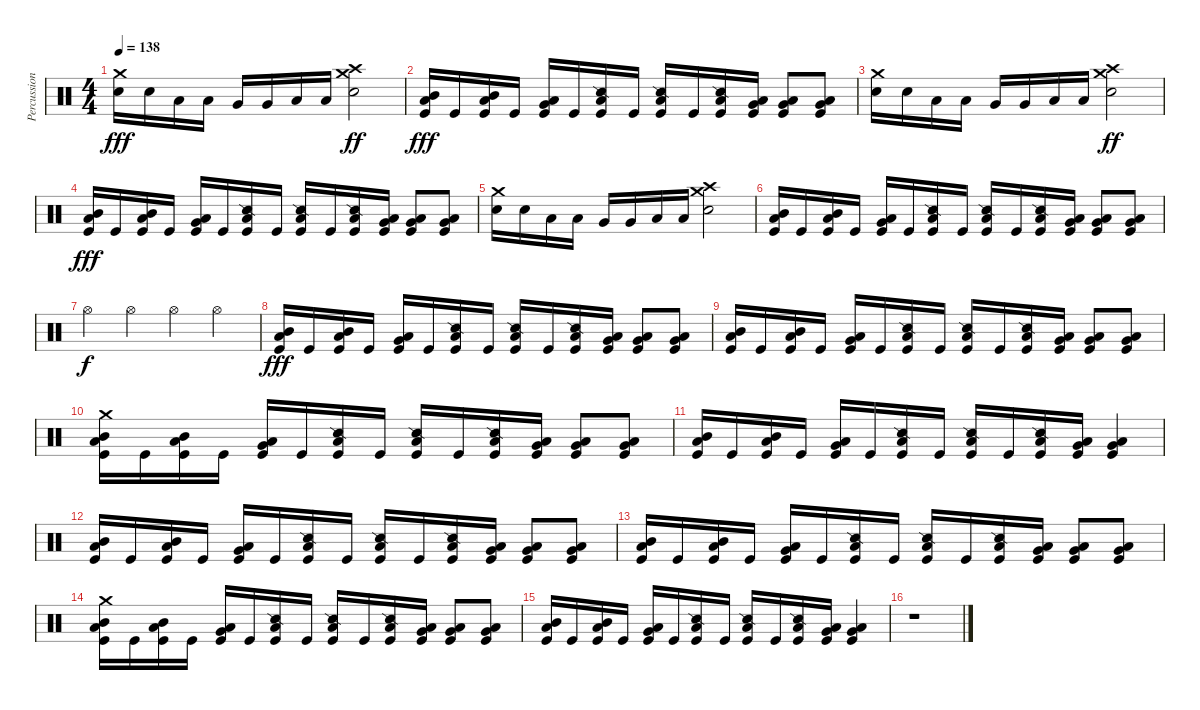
\track ("Percussion" "Percussion") {instrument percussion}
\staff {score}
\articulation defaults
\ts (4 4)
\tempo 138
\clef neutral
\ks c
("Crash medium (hit)" "Electric Snare (hit)").16{dy fff} "Electric Snare (hit)".16 "Low Tom (hit)".16 "Low Tom (hit)".16 "Very Low Tom (hit)".16 "Very Low Tom (hit)".16 "Low Floor Tom (hit)".16 "Low Floor Tom (hit)".16 ("Crash medium (hit)" "Crash high (hit)" "Electric Snare (hit)").2{dy ff} |
("Mid Tom (hit)" "Low Tom (hit)" "Kick (hit)").16{dy fff} "Kick (hit)".16 ("Mid Tom (hit)" "Low Tom (hit)" "Kick (hit)").16 "Kick (hit)".16 ("Very Low Tom (hit)" "Low Tom (hit)" "Kick (hit)").16 "Kick (hit)".16 ("Snare (side stick) 2" "Low Tom (hit)" "Kick (hit)").16 "Kick (hit)".16 ("Snare (side stick) 2" "Low Tom (hit)" "Kick (hit)").16 "Kick (hit)".16 ("Snare (side stick) 2" "Low Floor Tom (hit)" "Kick (hit)").16 ("Very Low Tom (hit)" "Low Tom (hit)" "Kick (hit)").16 ("Very Low Tom (hit)" "Low Tom (hit)" "Kick (hit)").8 ("Low Floor Tom (hit)" "Very Low Tom (hit)" "Kick (hit)").8 |
("Crash medium (hit)" "Electric Snare (hit)").16 "Electric Snare (hit)".16 "Low Tom (hit)".16 "Low Tom (hit)".16 "Very Low Tom (hit)".16 "Very Low Tom (hit)".16 "Low Floor Tom (hit)".16 "Low Floor Tom (hit)".16 ("Crash medium (hit)" "Crash high (hit)" "Electric Snare (hit)").2{dy ff} |
("Mid Tom (hit)" "Low Tom (hit)" "Kick (hit)").16{dy fff} "Kick (hit)".16 ("Mid Tom (hit)" "Low Tom (hit)" "Kick (hit)").16 "Kick (hit)".16 ("Very Low Tom (hit)" "Low Tom (hit)" "Kick (hit)").16 "Kick (hit)".16 ("Snare (side stick) 2" "Low Tom (hit)" "Kick (hit)").16 "Kick (hit)".16 ("Snare (side stick) 2" "Low Tom (hit)" "Kick (hit)").16 "Kick (hit)".16 ("Snare (side stick) 2" "Low Floor Tom (hit)" "Kick (hit)").16 ("Very Low Tom (hit)" "Low Tom (hit)" "Kick (hit)").16 ("Very Low Tom (hit)" "Low Tom (hit)" "Kick (hit)").8 ("Low Floor Tom (hit)" "Very Low Tom (hit)" "Kick (hit)").8 |
("Crash medium (hit)" "Electric Snare (hit)").16 "Electric Snare (hit)".16 "Low Tom (hit)".16 "Low Tom (hit)".16 "Very Low Tom (hit)".16 "Very Low Tom (hit)".16 "Low Floor Tom (hit)".16 "Low Floor Tom (hit)".16 ("Crash medium (hit)" "Crash high (hit)" "Electric Snare (hit)").2 |
("Mid Tom (hit)" "Low Tom (hit)" "Kick (hit)").16 "Kick (hit)".16 ("Mid Tom (hit)" "Low Tom (hit)" "Kick (hit)").16 "Kick (hit)".16 ("Very Low Tom (hit)" "Low Tom (hit)" "Kick (hit)").16 "Kick (hit)".16 ("Snare (side stick) 2" "Low Tom (hit)" "Kick (hit)").16 "Kick (hit)".16 ("Snare (side stick) 2" "Low Tom (hit)" "Kick (hit)").16 "Kick (hit)".16 ("Snare (side stick) 2" "Low Floor Tom (hit)" "Kick (hit)").16 ("Very Low Tom (hit)" "Low Tom (hit)" "Kick (hit)").16 ("Very Low Tom (hit)" "Low Tom (hit)" "Kick (hit)").8 ("Low Floor Tom (hit)" "Very Low Tom (hit)" "Kick (hit)").8 |
"Hi-Hat (open)".4{dy f} "Hi-Hat (open)".4 "Hi-Hat (open)".4 "Hi-Hat (open)".4 |
("Mid Tom (hit)" "Low Tom (hit)" "Kick (hit)").16{dy fff} "Kick (hit)".16 ("Mid Tom (hit)" "Low Tom (hit)" "Kick (hit)").16 "Kick (hit)".16 ("Very Low Tom (hit)" "Low Tom (hit)" "Kick (hit)").16 "Kick (hit)".16 ("Snare (side stick) 2" "Low Tom (hit)" "Kick (hit)").16 "Kick (hit)".16 ("Snare (side stick) 2" "Low Tom (hit)" "Kick (hit)").16 "Kick (hit)".16 ("Snare (side stick) 2" "Low Floor Tom (hit)" "Kick (hit)").16 ("Very Low Tom (hit)" "Low Tom (hit)" "Kick (hit)").16 ("Very Low Tom (hit)" "Low Tom (hit)" "Kick (hit)").8 ("Low Floor Tom (hit)" "Very Low Tom (hit)" "Kick (hit)").8 |
("Mid Tom (hit)" "Low Tom (hit)" "Kick (hit)").16 "Kick (hit)".16 ("Mid Tom (hit)" "Low Tom (hit)" "Kick (hit)").16 "Kick (hit)".16 ("Very Low Tom (hit)" "Low Tom (hit)" "Kick (hit)").16 "Kick (hit)".16 ("Snare (side stick) 2" "Low Tom (hit)" "Kick (hit)").16 "Kick (hit)".16 ("Snare (side stick) 2" "Low Tom (hit)" "Kick (hit)").16 "Kick (hit)".16 ("Snare (side stick) 2" "Low Floor Tom (hit)" "Kick (hit)").16 ("Very Low Tom (hit)" "Low Tom (hit)" "Kick (hit)").16 ("Very Low Tom (hit)" "Low Tom (hit)" "Kick (hit)").8 ("Low Floor Tom (hit)" "Very Low Tom (hit)" "Kick (hit)").8 |
("Crash medium (hit)" "Mid Tom (hit)" "Low Tom (hit)" "Kick (hit)").16 "Kick (hit)".16 ("Mid Tom (hit)" "Low Tom (hit)" "Kick (hit)").16 "Kick (hit)".16 ("Very Low Tom (hit)" "Low Tom (hit)" "Kick (hit)").16 "Kick (hit)".16 ("Snare (side stick) 2" "Low Tom (hit)" "Kick (hit)").16 "Kick (hit)".16 ("Snare (side stick) 2" "Low Tom (hit)" "Kick (hit)").16 "Kick (hit)".16 ("Snare (side stick) 2" "Low Floor Tom (hit)" "Kick (hit)").16 ("Very Low Tom (hit)" "Low Tom (hit)" "Kick (hit)").16 ("Very Low Tom (hit)" "Low Tom (hit)" "Kick (hit)").8 ("Low Floor Tom (hit)" "Very Low Tom (hit)" "Kick (hit)").8 |
("Mid Tom (hit)" "Low Tom (hit)" "Kick (hit)").16 "Kick (hit)".16 ("Mid Tom (hit)" "Low Tom (hit)" "Kick (hit)").16 "Kick (hit)".16 ("Very Low Tom (hit)" "Low Tom (hit)" "Kick (hit)").16 "Kick (hit)".16 ("Snare (side stick) 2" "Low Tom (hit)" "Kick (hit)").16 "Kick (hit)".16 ("Snare (side stick) 2" "Low Tom (hit)" "Kick (hit)").16 "Kick (hit)".16 ("Snare (side stick) 2" "Low Floor Tom (hit)" "Kick (hit)").16 ("Very Low Tom (hit)" "Low Tom (hit)" "Kick (hit)").16 ("Very Low Tom (hit)" "Low Tom (hit)" "Kick (hit)").4 |
("Mid Tom (hit)" "Low Tom (hit)" "Kick (hit)").16 "Kick (hit)".16 ("Mid Tom (hit)" "Low Tom (hit)" "Kick (hit)").16 "Kick (hit)".16 ("Very Low Tom (hit)" "Low Tom (hit)" "Kick (hit)").16 "Kick (hit)".16 ("Snare (side stick) 2" "Low Tom (hit)" "Kick (hit)").16 "Kick (hit)".16 ("Snare (side stick) 2" "Low Tom (hit)" "Kick (hit)").16 "Kick (hit)".16 ("Snare (side stick) 2" "Low Floor Tom (hit)" "Kick (hit)").16 ("Very Low Tom (hit)" "Low Tom (hit)" "Kick (hit)").16 ("Very Low Tom (hit)" "Low Tom (hit)" "Kick (hit)").8 ("Low Floor Tom (hit)" "Very Low Tom (hit)" "Kick (hit)").8 |
("Mid Tom (hit)" "Low Tom (hit)" "Kick (hit)").16 "Kick (hit)".16 ("Mid Tom (hit)" "Low Tom (hit)" "Kick (hit)").16 "Kick (hit)".16 ("Very Low Tom (hit)" "Low Tom (hit)" "Kick (hit)").16 "Kick (hit)".16 ("Snare (side stick) 2" "Low Tom (hit)" "Kick (hit)").16 "Kick (hit)".16 ("Snare (side stick) 2" "Low Tom (hit)" "Kick (hit)").16 "Kick (hit)".16 ("Snare (side stick) 2" "Low Floor Tom (hit)" "Kick (hit)").16 ("Very Low Tom (hit)" "Low Tom (hit)" "Kick (hit)").16 ("Very Low Tom (hit)" "Low Tom (hit)" "Kick (hit)").8 ("Low Floor Tom (hit)" "Very Low Tom (hit)" "Kick (hit)").8 |
("Crash medium (hit)" "Mid Tom (hit)" "Low Tom (hit)" "Kick (hit)").16 "Kick (hit)".16 ("Mid Tom (hit)" "Low Tom (hit)" "Kick (hit)").16 "Kick (hit)".16 ("Very Low Tom (hit)" "Low Tom (hit)" "Kick (hit)").16 "Kick (hit)".16 ("Snare (side stick) 2" "Low Tom (hit)" "Kick (hit)").16 "Kick (hit)".16 ("Snare (side stick) 2" "Low Tom (hit)" "Kick (hit)").16 "Kick (hit)".16 ("Snare (side stick) 2" "Low Floor Tom (hit)" "Kick (hit)").16 ("Very Low Tom (hit)" "Low Tom (hit)" "Kick (hit)").16 ("Very Low Tom (hit)" "Low Tom (hit)" "Kick (hit)").8 ("Low Floor Tom (hit)" "Very Low Tom (hit)" "Kick (hit)").8 |
("Mid Tom (hit)" "Low Tom (hit)" "Kick (hit)").16 "Kick (hit)".16 ("Mid Tom (hit)" "Low Tom (hit)" "Kick (hit)").16 "Kick (hit)".16 ("Very Low Tom (hit)" "Low Tom (hit)" "Kick (hit)").16 "Kick (hit)".16 ("Snare (side stick) 2" "Low Tom (hit)" "Kick (hit)").16 "Kick (hit)".16 ("Snare (side stick) 2" "Low Tom (hit)" "Kick (hit)").16 "Kick (hit)".16 ("Snare (side stick) 2" "Low Floor Tom (hit)" "Kick (hit)").16 ("Very Low Tom (hit)" "Low Tom (hit)" "Kick (hit)").16 ("Very Low Tom (hit)" "Low Tom (hit)" "Kick (hit)").4 |
r.1
